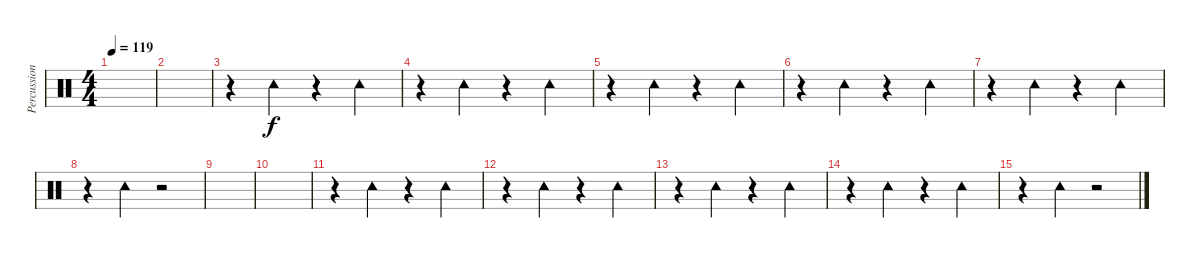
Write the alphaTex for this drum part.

\track ("Percussion" "Percussion") {instrument percussion}
\staff {score}
\articulation defaults
\ts (4 4)
\tempo 119
\clef neutral
\ks c
|
|
r.4 "Tambourine (hit)".4 r.4 "Tambourine (hit)".4 |
r.4 "Tambourine (hit)".4 r.4 "Tambourine (hit)".4 |
r.4 "Tambourine (hit)".4 r.4 "Tambourine (hit)".4 |
r.4 "Tambourine (hit)".4 r.4 "Tambourine (hit)".4 |
r.4 "Tambourine (hit)".4 r.4 "Tambourine (hit)".4 |
r.4 "Tambourine (hit)".4 r.2 |
|
|
r.4 "Tambourine (hit)".4 r.4 "Tambourine (hit)".4 |
r.4 "Tambourine (hit)".4 r.4 "Tambourine (hit)".4 |
r.4 "Tambourine (hit)".4 r.4 "Tambourine (hit)".4 |
r.4 "Tambourine (hit)".4 r.4 "Tambourine (hit)".4 |
r.4 "Tambourine (hit)".4 r.2
